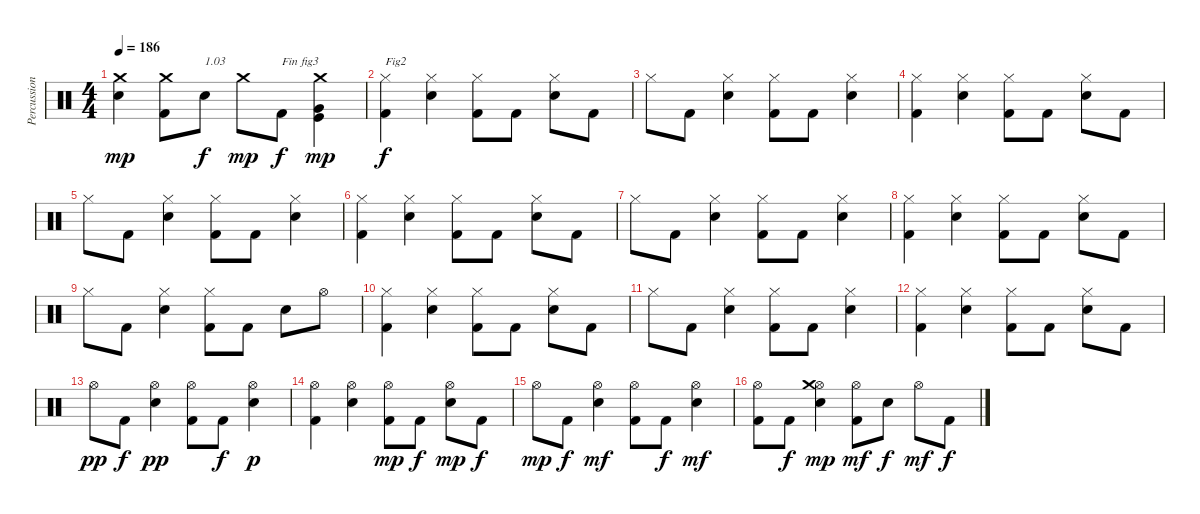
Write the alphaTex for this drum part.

\track ("Percussions" "Percussion") {instrument percussion}
\staff {score}
\articulation defaults
\ts (4 4)
\tempo 186
\clef neutral
\ks c
("Electric Snare (hit)" "Crash medium (hit)").4{dy mp} ("Kick (hit) 2" "Crash medium (hit)").8 "Electric Snare (hit)".8{txt "1.03" dy f} "Crash medium (hit)".8{dy mp} "Kick (hit) 2".8{txt "Fin fig3" dy f} ("Kick (hit)" "Very Low Tom (hit)" "Crash medium (hit)").4{dy mp} |
("Kick (hit) 2" "Hi-Hat (closed)").4{txt "Fig2" dy f} ("Electric Snare (hit)" "Hi-Hat (closed)").4 ("Kick (hit) 2" "Hi-Hat (closed)").8 "Kick (hit) 2".8 ("Electric Snare (hit)" "Hi-Hat (closed)").8 "Kick (hit) 2".8 |
"Hi-Hat (closed)".8 "Kick (hit) 2".8 ("Electric Snare (hit)" "Hi-Hat (closed)").4 ("Kick (hit) 2" "Hi-Hat (closed)").8 "Kick (hit) 2".8 ("Electric Snare (hit)" "Hi-Hat (closed)").4 |
("Kick (hit) 2" "Hi-Hat (closed)").4 ("Electric Snare (hit)" "Hi-Hat (closed)").4 ("Kick (hit) 2" "Hi-Hat (closed)").8 "Kick (hit) 2".8 ("Electric Snare (hit)" "Hi-Hat (closed)").8 "Kick (hit) 2".8 |
"Hi-Hat (closed)".8 "Kick (hit) 2".8 ("Electric Snare (hit)" "Hi-Hat (closed)").4 ("Kick (hit) 2" "Hi-Hat (closed)").8 "Kick (hit) 2".8 ("Electric Snare (hit)" "Hi-Hat (closed)").4 |
("Kick (hit) 2" "Hi-Hat (closed)").4 ("Electric Snare (hit)" "Hi-Hat (closed)").4 ("Kick (hit) 2" "Hi-Hat (closed)").8 "Kick (hit) 2".8 ("Electric Snare (hit)" "Hi-Hat (closed)").8 "Kick (hit) 2".8 |
"Hi-Hat (closed)".8 "Kick (hit) 2".8 ("Electric Snare (hit)" "Hi-Hat (closed)").4 ("Kick (hit) 2" "Hi-Hat (closed)").8 "Kick (hit) 2".8 ("Electric Snare (hit)" "Hi-Hat (closed)").4 |
("Kick (hit) 2" "Hi-Hat (closed)").4 ("Electric Snare (hit)" "Hi-Hat (closed)").4 ("Kick (hit) 2" "Hi-Hat (closed)").8 "Kick (hit) 2".8 ("Electric Snare (hit)" "Hi-Hat (closed)").8 "Kick (hit) 2".8 |
"Hi-Hat (closed)".8 "Kick (hit) 2".8 ("Electric Snare (hit)" "Hi-Hat (closed)").4 ("Kick (hit) 2" "Hi-Hat (closed)").8 "Kick (hit) 2".8 "Electric Snare (hit)".8 "Hi-Hat (open)".8 |
("Kick (hit) 2" "Hi-Hat (closed)").4 ("Electric Snare (hit)" "Hi-Hat (closed)").4 ("Kick (hit) 2" "Hi-Hat (closed)").8 "Kick (hit) 2".8 ("Electric Snare (hit)" "Hi-Hat (closed)").8 "Kick (hit) 2".8 |
"Hi-Hat (closed)".8 "Kick (hit) 2".8 ("Electric Snare (hit)" "Hi-Hat (closed)").4 ("Kick (hit) 2" "Hi-Hat (closed)").8 "Kick (hit) 2".8 ("Electric Snare (hit)" "Hi-Hat (closed)").4 |
("Kick (hit) 2" "Hi-Hat (closed)").4 ("Electric Snare (hit)" "Hi-Hat (closed)").4 ("Kick (hit) 2" "Hi-Hat (closed)").8 "Kick (hit) 2".8 ("Electric Snare (hit)" "Hi-Hat (closed)").8 "Kick (hit) 2".8 |
"Hi-Hat (open)".8{dy pp} "Kick (hit) 2".8{dy f} ("Electric Snare (hit)" "Hi-Hat (open)").4{dy pp} ("Kick (hit) 2" "Hi-Hat (open)").8 "Kick (hit) 2".8{dy f} ("Electric Snare (hit)" "Hi-Hat (open)").4{dy p} |
("Kick (hit) 2" "Hi-Hat (open)").4 ("Electric Snare (hit)" "Hi-Hat (open)").4 ("Kick (hit) 2" "Hi-Hat (open)").8{dy mp} "Kick (hit) 2".8{dy f} ("Electric Snare (hit)" "Hi-Hat (open)").8{dy mp} "Kick (hit) 2".8{dy f} |
"Hi-Hat (open)".8{dy mp} "Kick (hit) 2".8{dy f} ("Electric Snare (hit)" "Hi-Hat (open)").4{dy mf} ("Kick (hit) 2" "Hi-Hat (open)").8 "Kick (hit) 2".8{dy f} ("Electric Snare (hit)" "Hi-Hat (open)").4{dy mf} |
("Kick (hit) 2" "Hi-Hat (open)").8 "Kick (hit) 2".8{dy f} ("Electric Snare (hit)" "Hi-Hat (open)" "Crash medium (hit)").4{dy mp} ("Kick (hit) 2" "Hi-Hat (open)").8{dy mf} "Electric Snare (hit)".8{dy f} "Hi-Hat (open)".8{dy mf} "Kick (hit) 2".8{dy f}
